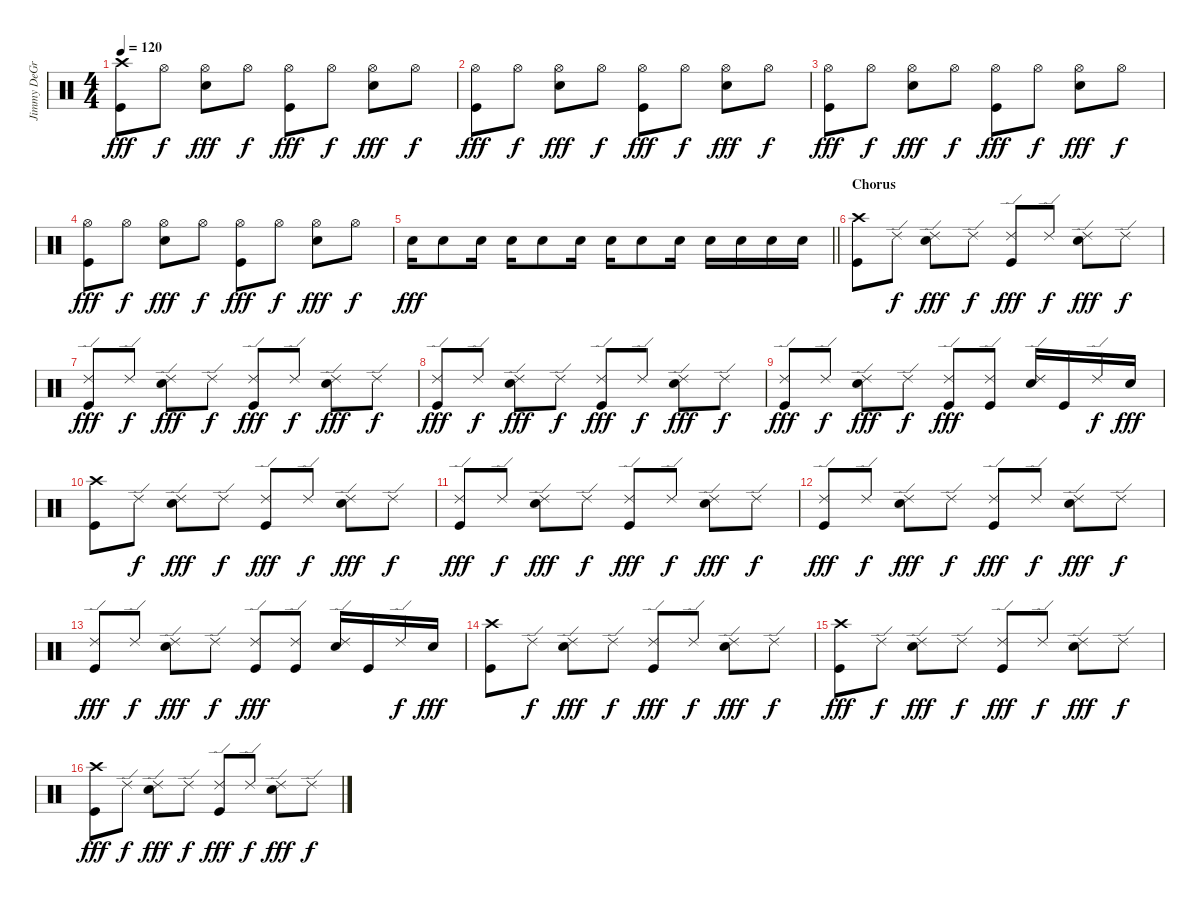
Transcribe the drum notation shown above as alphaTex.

\track ("Jimmy DeGrasso" "Jimmy DeGr") {instrument percussion}
\staff {score}
\articulation defaults
\ts (4 4)
\tempo 120
\clef neutral
\ks c
("Kick (hit)" "Crash high (hit)").8{dy fff} "Hi-Hat (open)".8{dy f} ("Electric Snare (hit)" "Hi-Hat (open)").8{dy fff} "Hi-Hat (open)".8{dy f} ("Kick (hit)" "Hi-Hat (open)").8{dy fff} "Hi-Hat (open)".8{dy f} ("Electric Snare (hit)" "Hi-Hat (open)").8{dy fff} "Hi-Hat (open)".8{dy f} |
("Kick (hit)" "Hi-Hat (open)").8{dy fff} "Hi-Hat (open)".8{dy f} ("Electric Snare (hit)" "Hi-Hat (open)").8{dy fff} "Hi-Hat (open)".8{dy f} ("Kick (hit)" "Hi-Hat (open)").8{dy fff} "Hi-Hat (open)".8{dy f} ("Electric Snare (hit)" "Hi-Hat (open)").8{dy fff} "Hi-Hat (open)".8{dy f} |
("Kick (hit)" "Hi-Hat (open)").8{dy fff} "Hi-Hat (open)".8{dy f} ("Electric Snare (hit)" "Hi-Hat (open)").8{dy fff} "Hi-Hat (open)".8{dy f} ("Kick (hit)" "Hi-Hat (open)").8{dy fff} "Hi-Hat (open)".8{dy f} ("Electric Snare (hit)" "Hi-Hat (open)").8{dy fff} "Hi-Hat (open)".8{dy f} |
("Kick (hit)" "Hi-Hat (open)").8{dy fff} "Hi-Hat (open)".8{dy f} ("Electric Snare (hit)" "Hi-Hat (open)").8{dy fff} "Hi-Hat (open)".8{dy f} ("Kick (hit)" "Hi-Hat (open)").8{dy fff} "Hi-Hat (open)".8{dy f} ("Electric Snare (hit)" "Hi-Hat (open)").8{dy fff} "Hi-Hat (open)".8{dy f} |
\barLineRight lightlight "Electric Snare (hit)".16{dy fff} "Electric Snare (hit)".8 "Electric Snare (hit)".16 "Electric Snare (hit)".16 "Electric Snare (hit)".8 "Electric Snare (hit)".16 "Electric Snare (hit)".16 "Electric Snare (hit)".8 "Electric Snare (hit)".16 "Electric Snare (hit)".16 "Electric Snare (hit)".16 "Electric Snare (hit)".16 "Electric Snare (hit)".16
|
\section ("" "Chorus")
("Kick (hit)" "Crash high (hit)").8 "Ride (edge) 2".8{dy f} ("Electric Snare (hit)" "Ride (edge) 2").8{dy fff} "Ride (edge) 2".8{dy f} ("Kick (hit)" "Ride (edge) 2").8{dy fff} "Ride (edge) 2".8{dy f} ("Electric Snare (hit)" "Ride (edge) 2").8{dy fff} "Ride (edge) 2".8{dy f} |
("Kick (hit)" "Ride (edge) 2").8{dy fff} "Ride (edge) 2".8{dy f} ("Electric Snare (hit)" "Ride (edge) 2").8{dy fff} "Ride (edge) 2".8{dy f} ("Kick (hit)" "Ride (edge) 2").8{dy fff} "Ride (edge) 2".8{dy f} ("Electric Snare (hit)" "Ride (edge) 2").8{dy fff} "Ride (edge) 2".8{dy f} |
("Kick (hit)" "Ride (edge) 2").8{dy fff} "Ride (edge) 2".8{dy f} ("Electric Snare (hit)" "Ride (edge) 2").8{dy fff} "Ride (edge) 2".8{dy f} ("Kick (hit)" "Ride (edge) 2").8{dy fff} "Ride (edge) 2".8{dy f} ("Electric Snare (hit)" "Ride (edge) 2").8{dy fff} "Ride (edge) 2".8{dy f} |
("Kick (hit)" "Ride (edge) 2").8{dy fff} "Ride (edge) 2".8{dy f} ("Electric Snare (hit)" "Ride (edge) 2").8{dy fff} "Ride (edge) 2".8{dy f} ("Kick (hit)" "Ride (edge) 2").8{dy fff} ("Kick (hit)" "Ride (edge) 2").8 ("Electric Snare (hit)" "Ride (edge) 2").16 "Kick (hit)".16 "Ride (edge) 2".16{dy f} "Electric Snare (hit)".16{dy fff} |
("Kick (hit)" "Crash high (hit)").8 "Ride (edge) 2".8{dy f} ("Electric Snare (hit)" "Ride (edge) 2").8{dy fff} "Ride (edge) 2".8{dy f} ("Kick (hit)" "Ride (edge) 2").8{dy fff} "Ride (edge) 2".8{dy f} ("Electric Snare (hit)" "Ride (edge) 2").8{dy fff} "Ride (edge) 2".8{dy f} |
("Kick (hit)" "Ride (edge) 2").8{dy fff} "Ride (edge) 2".8{dy f} ("Electric Snare (hit)" "Ride (edge) 2").8{dy fff} "Ride (edge) 2".8{dy f} ("Kick (hit)" "Ride (edge) 2").8{dy fff} "Ride (edge) 2".8{dy f} ("Electric Snare (hit)" "Ride (edge) 2").8{dy fff} "Ride (edge) 2".8{dy f} |
("Kick (hit)" "Ride (edge) 2").8{dy fff} "Ride (edge) 2".8{dy f} ("Electric Snare (hit)" "Ride (edge) 2").8{dy fff} "Ride (edge) 2".8{dy f} ("Kick (hit)" "Ride (edge) 2").8{dy fff} "Ride (edge) 2".8{dy f} ("Electric Snare (hit)" "Ride (edge) 2").8{dy fff} "Ride (edge) 2".8{dy f} |
("Kick (hit)" "Ride (edge) 2").8{dy fff} "Ride (edge) 2".8{dy f} ("Electric Snare (hit)" "Ride (edge) 2").8{dy fff} "Ride (edge) 2".8{dy f} ("Kick (hit)" "Ride (edge) 2").8{dy fff} ("Kick (hit)" "Ride (edge) 2").8 ("Electric Snare (hit)" "Ride (edge) 2").16 "Kick (hit)".16 "Ride (edge) 2".16{dy f} "Electric Snare (hit)".16{dy fff} |
("Kick (hit)" "Crash high (hit)").8 "Ride (edge) 2".8{dy f} ("Electric Snare (hit)" "Ride (edge) 2").8{dy fff} "Ride (edge) 2".8{dy f} ("Kick (hit)" "Ride (edge) 2").8{dy fff} "Ride (edge) 2".8{dy f} ("Electric Snare (hit)" "Ride (edge) 2").8{dy fff} "Ride (edge) 2".8{dy f} |
("Kick (hit)" "Crash high (hit)").8{dy fff} "Ride (edge) 2".8{dy f} ("Electric Snare (hit)" "Ride (edge) 2").8{dy fff} "Ride (edge) 2".8{dy f} ("Kick (hit)" "Ride (edge) 2").8{dy fff} "Ride (edge) 2".8{dy f} ("Electric Snare (hit)" "Ride (edge) 2").8{dy fff} "Ride (edge) 2".8{dy f} |
("Kick (hit)" "Crash high (hit)").8{dy fff} "Ride (edge) 2".8{dy f} ("Electric Snare (hit)" "Ride (edge) 2").8{dy fff} "Ride (edge) 2".8{dy f} ("Kick (hit)" "Ride (edge) 2").8{dy fff} "Ride (edge) 2".8{dy f} ("Electric Snare (hit)" "Ride (edge) 2").8{dy fff} "Ride (edge) 2".8{dy f}
